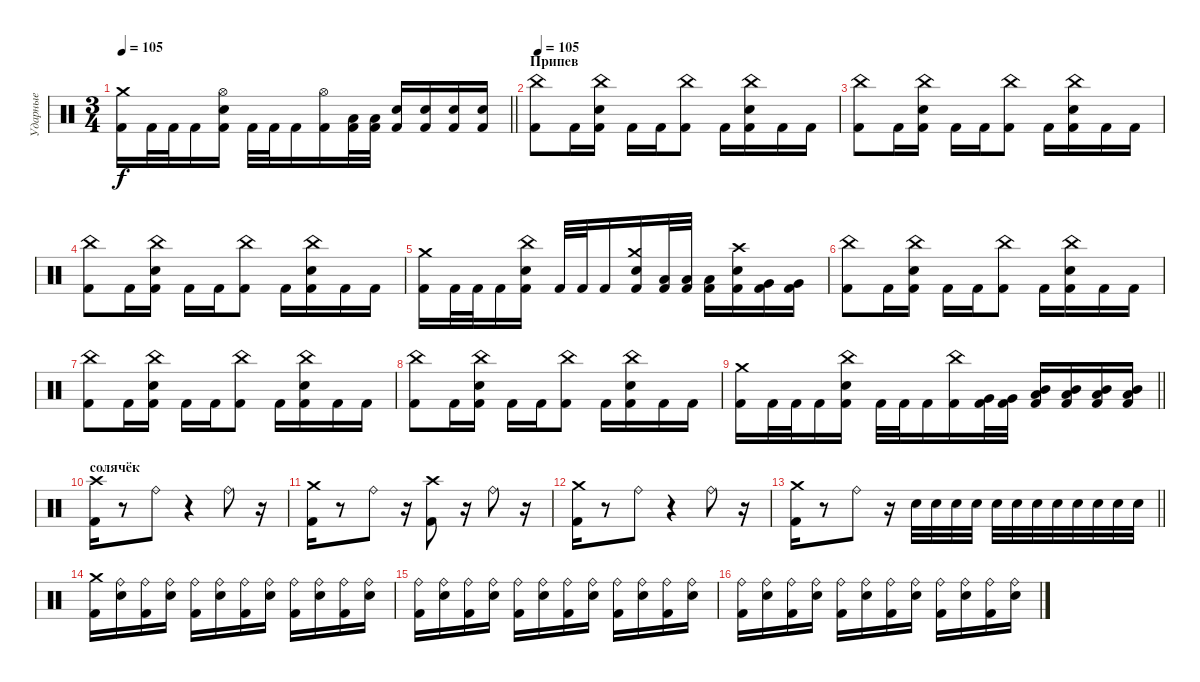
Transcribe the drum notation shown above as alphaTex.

\track ("Ударные" "Ударные") {instrument percussion}
\staff {score}
\articulation defaults
\ts (3 4)
\tempo 105
\clef neutral
\barLineRight lightlight
\ks c
("Kick (hit) 2" "Crash medium (hit)").16{dy f} "Kick (hit) 2".32 "Kick (hit) 2".32 "Kick (hit) 2".16 ("Kick (hit) 2" "Snare (hit) 2" "Hi-Hat (open)").16 "Kick (hit) 2".32 "Kick (hit) 2".32 "Kick (hit) 2".16 ("Kick (hit) 2" "Hi-Hat (open)").16 ("Kick (hit) 2" "Low Tom (hit)").32 ("Kick (hit) 2" "Low Tom (hit)").32 ("Kick (hit) 2" "Snare (hit) 2").16 ("Kick (hit) 2" "Snare (hit) 2").16 ("Kick (hit) 2" "Snare (hit) 2").16 ("Kick (hit) 2" "Snare (hit) 2").16 |
\section ("" "Припев")
\tempo 105
("Kick (hit) 2" "China (hit)").8 "Kick (hit) 2".16 ("Kick (hit) 2" "Snare (hit) 2" "China (hit)").16 "Kick (hit) 2".16 "Kick (hit) 2".16 ("Kick (hit) 2" "China (hit)").8 "Kick (hit) 2".16 ("Kick (hit) 2" "Snare (hit) 2" "China (hit)").16 "Kick (hit) 2".16 "Kick (hit) 2".16 |
("Kick (hit) 2" "China (hit)").8 "Kick (hit) 2".16 ("Kick (hit) 2" "Snare (hit) 2" "China (hit)").16 "Kick (hit) 2".16 "Kick (hit) 2".16 ("Kick (hit) 2" "China (hit)").8 "Kick (hit) 2".16 ("Kick (hit) 2" "Snare (hit) 2" "China (hit)").16 "Kick (hit) 2".16 "Kick (hit) 2".16 |
("Kick (hit) 2" "China (hit)").8 "Kick (hit) 2".16 ("Kick (hit) 2" "Snare (hit) 2" "China (hit)").16 "Kick (hit) 2".16 "Kick (hit) 2".16 ("Kick (hit) 2" "China (hit)").8 "Kick (hit) 2".16 ("Kick (hit) 2" "Snare (hit) 2" "China (hit)").16 "Kick (hit) 2".16 "Kick (hit) 2".16 |
("Kick (hit) 2" "Crash medium (hit)").16 "Kick (hit) 2".32 "Kick (hit) 2".32 "Kick (hit) 2".16 ("Kick (hit) 2" "Snare (hit) 2" "China (hit)").16 "Kick (hit) 2".32 "Kick (hit) 2".32 "Kick (hit) 2".16 ("Kick (hit) 2" "Snare (hit) 2" "Crash medium (hit)").16 ("Kick (hit) 2" "Low Tom (hit)").32 ("Kick (hit) 2" "Low Tom (hit)").32 ("Kick (hit) 2" "Low Tom (hit)").16 ("Kick (hit) 2" "Snare (hit) 2" "Crash high (hit)").16 ("Kick (hit) 2" "Very Low Tom (hit)").16 ("Kick (hit) 2" "Very Low Tom (hit)").16 |
("Kick (hit) 2" "China (hit)").8 "Kick (hit) 2".16 ("Kick (hit) 2" "Snare (hit) 2" "China (hit)").16 "Kick (hit) 2".16 "Kick (hit) 2".16 ("Kick (hit) 2" "China (hit)").8 "Kick (hit) 2".16 ("Kick (hit) 2" "Snare (hit) 2" "China (hit)").16 "Kick (hit) 2".16 "Kick (hit) 2".16 |
("Kick (hit) 2" "China (hit)").8 "Kick (hit) 2".16 ("Kick (hit) 2" "Snare (hit) 2" "China (hit)").16 "Kick (hit) 2".16 "Kick (hit) 2".16 ("Kick (hit) 2" "China (hit)").8 "Kick (hit) 2".16 ("Kick (hit) 2" "Snare (hit) 2" "China (hit)").16 "Kick (hit) 2".16 "Kick (hit) 2".16 |
("Kick (hit) 2" "China (hit)").8 "Kick (hit) 2".16 ("Kick (hit) 2" "Snare (hit) 2" "China (hit)").16 "Kick (hit) 2".16 "Kick (hit) 2".16 ("Kick (hit) 2" "China (hit)").8 "Kick (hit) 2".16 ("Kick (hit) 2" "Snare (hit) 2" "China (hit)").16 "Kick (hit) 2".16 "Kick (hit) 2".16 |
\barLineRight lightlight
("Kick (hit) 2" "Crash medium (hit)").16 "Kick (hit) 2".32 "Kick (hit) 2".32 "Kick (hit) 2".16 ("Kick (hit) 2" "Snare (hit) 2" "China (hit)").16 "Kick (hit) 2".32 "Kick (hit) 2".32 "Kick (hit) 2".16 ("Kick (hit) 2" "China (hit)").16 ("Kick (hit) 2" "Very Low Tom (hit)").32 ("Kick (hit) 2" "Very Low Tom (hit)").32 ("Kick (hit) 2" "Low Tom (hit)" "Mid Tom (hit)").16 ("Kick (hit) 2" "Low Tom (hit)" "Mid Tom (hit)").16 ("Kick (hit) 2" "Low Tom (hit)" "Mid Tom (hit)").16 ("Kick (hit) 2" "Low Tom (hit)" "Mid Tom (hit)").16 |
\section ("" "солячёк")
("Kick (hit) 2" "Crash high (hit)").16 r.8 "Ride (bell)".8 r.4 "Ride (bell)".8 r.16 |
("Kick (hit) 2" "Crash medium (hit)").16 r.8 "Ride (bell)".8 r.16 ("Kick (hit) 2" "Crash high (hit)").8 r.16 "Ride (bell)".8 r.16 |
("Kick (hit) 2" "Crash medium (hit)").16 r.8 "Ride (bell)".8 r.4 "Ride (bell)".8 r.16 |
\barLineRight lightlight
("Kick (hit) 2" "Crash medium (hit)").16 r.8 "Ride (bell)".8 r.16 "Snare (hit) 2".32 "Snare (hit) 2".32 "Snare (hit) 2".32 "Snare (hit) 2".32 "Snare (hit) 2".32 "Snare (hit) 2".32 "Snare (hit) 2".32 "Snare (hit) 2".32 "Snare (hit) 2".32 "Snare (hit) 2".32 "Snare (hit) 2".32 "Snare (hit) 2".32 |
("Kick (hit) 2" "Crash medium (hit)").16 ("Snare (hit) 2" "Ride (bell)").16 ("Kick (hit) 2" "Ride (bell)").16 ("Snare (hit) 2" "Ride (bell)").16 ("Kick (hit) 2" "Ride (bell)").16 ("Snare (hit) 2" "Ride (bell)").16 ("Kick (hit) 2" "Ride (bell)").16 ("Snare (hit) 2" "Ride (bell)").16 ("Kick (hit) 2" "Ride (bell)").16 ("Snare (hit) 2" "Ride (bell)").16 ("Kick (hit) 2" "Ride (bell)").16 ("Snare (hit) 2" "Ride (bell)").16 |
("Kick (hit) 2" "Ride (bell)").16 ("Snare (hit) 2" "Ride (bell)").16 ("Kick (hit) 2" "Ride (bell)").16 ("Snare (hit) 2" "Ride (bell)").16 ("Kick (hit) 2" "Ride (bell)").16 ("Snare (hit) 2" "Ride (bell)").16 ("Kick (hit) 2" "Ride (bell)").16 ("Snare (hit) 2" "Ride (bell)").16 ("Kick (hit) 2" "Ride (bell)").16 ("Snare (hit) 2" "Ride (bell)").16 ("Kick (hit) 2" "Ride (bell)").16 ("Snare (hit) 2" "Ride (bell)").16 |
("Kick (hit) 2" "Ride (bell)").16 ("Snare (hit) 2" "Ride (bell)").16 ("Kick (hit) 2" "Ride (bell)").16 ("Snare (hit) 2" "Ride (bell)").16 ("Kick (hit) 2" "Ride (bell)").16 ("Snare (hit) 2" "Ride (bell)").16 ("Kick (hit) 2" "Ride (bell)").16 ("Snare (hit) 2" "Ride (bell)").16 ("Kick (hit) 2" "Ride (bell)").16 ("Snare (hit) 2" "Ride (bell)").16 ("Kick (hit) 2" "Ride (bell)").16 ("Snare (hit) 2" "Ride (bell)").16
